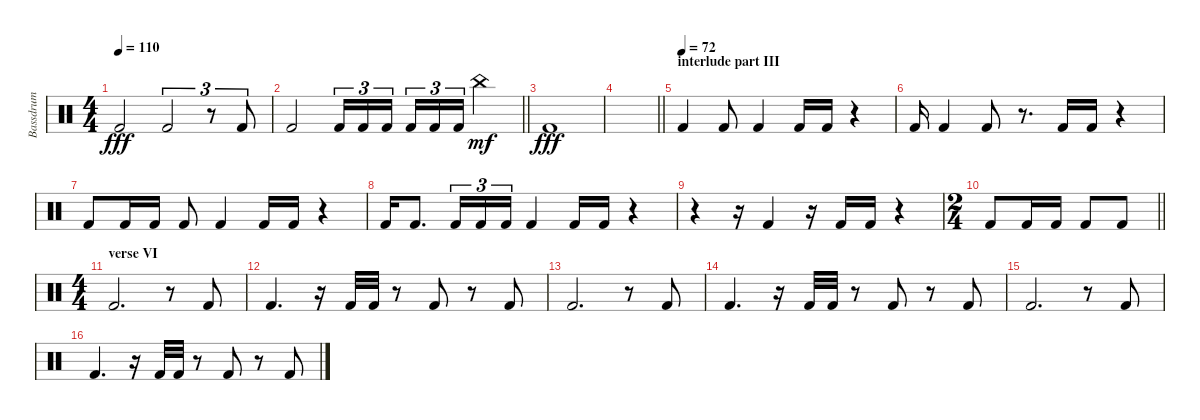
\track ("Bassdrum" "Bassdrum") {instrument percussion}
\staff {score}
\articulation defaults
\ts (4 4)
\tempo 110
\clef neutral
\ks c "Kick (hit) 2".2{dy fff} "Kick (hit) 2".2{tu (3 2)}
r.8{tu (3 2)} "Kick (hit) 2".8{tu (3 2)} |
\barLineRight lightlight "Kick (hit) 2".2 "Kick (hit) 2".16{tu (3 2)} "Kick (hit) 2".16{tu (3 2)} "Kick (hit) 2".16{tu (3 2) beam splitsecondary} "Kick (hit) 2".16{tu (3 2)} "Kick (hit) 2".16{tu (3 2)} "Kick (hit) 2".16{tu (3 2)} "China (hit)".4{dy mf}
|
\section ("" "")
"Kick (hit) 2".1{dy fff} |
\barLineRight lightlight
|
\section ("" "interlude part III")
\tempo (72)
"Kick (hit) 2".4 "Kick (hit) 2".8 "Kick (hit) 2".4 "Kick (hit) 2".16 "Kick (hit) 2".16 r.4 |
"Kick (hit) 2".16 "Kick (hit) 2".4 "Kick (hit) 2".8 r.8{d} "Kick (hit) 2".16 "Kick (hit) 2".16 r.4 |
"Kick (hit) 2".8 "Kick (hit) 2".16 "Kick (hit) 2".16 "Kick (hit) 2".8 "Kick (hit) 2".4 "Kick (hit) 2".16 "Kick (hit) 2".16 r.4 |
"Kick (hit) 2".16 "Kick (hit) 2".8{d} "Kick (hit) 2".16{tu (3 2)} "Kick (hit) 2".16{tu (3 2)} "Kick (hit) 2".16{tu (3 2)} "Kick (hit) 2".4 "Kick (hit) 2".16 "Kick (hit) 2".16 r.4 |
r.4 r.16 "Kick (hit) 2".4 r.16 "Kick (hit) 2".16 "Kick (hit) 2".16 r.4 |
\ts (2 4)
\barLineRight lightlight "Kick (hit) 2".8 "Kick (hit) 2".16 "Kick (hit) 2".16 "Kick (hit) 2".8 "Kick (hit) 2".8
|
\ts (4 4)
\section ("" "verse VI")
"Kick (hit) 2".2{d} r.8 "Kick (hit) 2".8 |
"Kick (hit) 2".4{d} r.16 "Kick (hit) 2".32 "Kick (hit) 2".32 r.8 "Kick (hit) 2".8 r.8 "Kick (hit) 2".8 |
"Kick (hit) 2".2{d} r.8 "Kick (hit) 2".8 |
"Kick (hit) 2".4{d} r.16 "Kick (hit) 2".32 "Kick (hit) 2".32 r.8 "Kick (hit) 2".8 r.8 "Kick (hit) 2".8 |
"Kick (hit) 2".2{d} r.8 "Kick (hit) 2".8 |
"Kick (hit) 2".4{d} r.16 "Kick (hit) 2".32 "Kick (hit) 2".32 r.8 "Kick (hit) 2".8 r.8 "Kick (hit) 2".8
